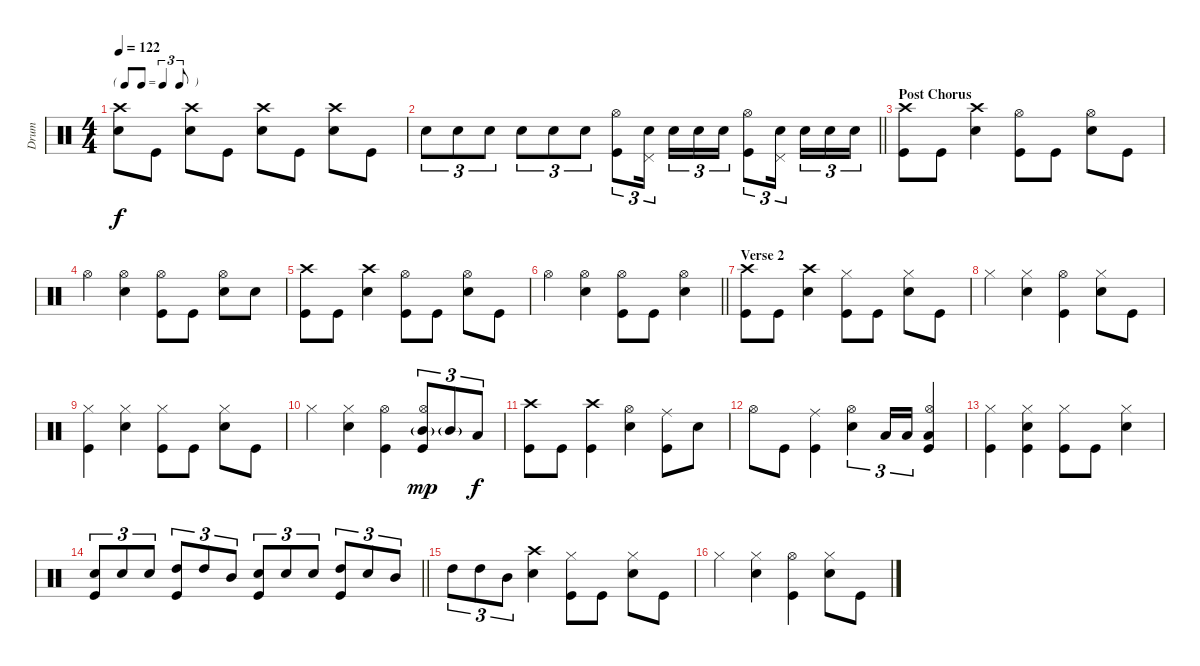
\track ("Drum" "Drum") {instrument percussion}
\staff {score}
\articulation defaults
\ts (4 4)
\tf triplet8th
\tempo 122
\clef neutral
\ks c
("Crash high (hit)" "Electric Snare (hit)").8{dy f} "Kick (hit)".8 ("Crash high (hit)" "Electric Snare (hit)").8 "Kick (hit)".8 ("Crash high (hit)" "Electric Snare (hit)").8 "Kick (hit)".8 ("Crash high (hit)" "Electric Snare (hit)").8 "Kick (hit)".8 |
\barLineRight lightlight "Electric Snare (hit)".8{tu (3 2)} "Electric Snare (hit)".8{tu (3 2)} "Electric Snare (hit)".8{tu (3 2)} "Electric Snare (hit)".8{tu (3 2)} "Electric Snare (hit)".8{tu (3 2)} "Electric Snare (hit)".8{tu (3 2)}
("Hi-Hat (open)" "Kick (hit)").8{tu (3 2)} ("Pedal Hi-Hat (hit)" "Electric Snare (hit)").16{tu (3 2)} "Electric Snare (hit)".16{tu (3 2)} "Electric Snare (hit)".16{tu (3 2)} "Electric Snare (hit)".16{tu (3 2)} ("Hi-Hat (open)" "Kick (hit)").8{tu (3 2)} ("Pedal Hi-Hat (hit)" "Electric Snare (hit)").16{tu (3 2)} "Electric Snare (hit)".16{tu (3 2)} "Electric Snare (hit)".16{tu (3 2)} "Electric Snare (hit)".16{tu (3 2)} |
\section ("" "Post Chorus")
("Crash high (hit)" "Kick (hit)").8 "Kick (hit)".8 ("Crash high (hit)" "Electric Snare (hit)").4 ("Hi-Hat (open)" "Kick (hit)").8 "Kick (hit)".8 ("Hi-Hat (open)" "Electric Snare (hit)").8 "Kick (hit)".8 |
"Hi-Hat (open)".4 ("Hi-Hat (open)" "Electric Snare (hit)").4 ("Hi-Hat (open)" "Kick (hit)").8 "Kick (hit)".8 ("Hi-Hat (open)" "Electric Snare (hit)").8 "Electric Snare (hit)".8 |
("Crash high (hit)" "Kick (hit)").8 "Kick (hit)".8 ("Crash high (hit)" "Electric Snare (hit)").4 ("Hi-Hat (open)" "Kick (hit)").8 "Kick (hit)".8 ("Hi-Hat (open)" "Electric Snare (hit)").8 "Kick (hit)".8 |
\barLineRight lightlight "Hi-Hat (open)".4
("Hi-Hat (open)" "Electric Snare (hit)").4 ("Hi-Hat (open)" "Kick (hit)").8 "Kick (hit)".8 ("Hi-Hat (open)" "Electric Snare (hit)").4 |
\section ("" "Verse 2")
("Crash high (hit)" "Kick (hit)").8 "Kick (hit)".8 ("Crash high (hit)" "Electric Snare (hit)").4 ("Hi-Hat (closed)" "Kick (hit)").8 "Kick (hit)".8 ("Hi-Hat (closed)" "Electric Snare (hit)").8 "Kick (hit)".8 |
"Hi-Hat (closed)".4 ("Hi-Hat (closed)" "Electric Snare (hit)").4 ("Hi-Hat (open)" "Kick (hit)").4 ("Hi-Hat (closed)" "Electric Snare (hit)").8 "Kick (hit)".8 |
("Hi-Hat (closed)" "Kick (hit)").4 ("Hi-Hat (closed)" "Electric Snare (hit)").4 ("Hi-Hat (closed)" "Kick (hit)").8 "Kick (hit)".8 ("Hi-Hat (closed)" "Electric Snare (hit)").8 "Kick (hit)".8 |
"Hi-Hat (closed)".4 ("Hi-Hat (closed)" "Electric Snare (hit)").4 ("Hi-Hat (open)" "Kick (hit)").4 ("Hi-Hat (open)" "Mid Tom (hit)"{g} "Kick (hit)").8{tu (3 2) dy mp} "Mid Tom (hit)"{g}.8{tu (3 2)} "Low Tom (hit)".8{tu (3 2) dy f} |
("Crash high (hit)" "Kick (hit)").8 "Kick (hit)".8 ("Crash high (hit)" "Kick (hit)").4 ("Hi-Hat (open)" "Electric Snare (hit)").4 ("Ride (middle)" "Kick (hit)").8 "Electric Snare (hit)".8 |
"Hi-Hat (open)".8 "Kick (hit)".8 ("Ride (middle)" "Kick (hit)").4 ("Hi-Hat (open)" "Electric Snare (hit)").4{tu (3 2)} "Low Tom (hit)".16{tu (3 2)} "Low Tom (hit)".16{tu (3 2)} ("Hi-Hat (open)" "Low Floor Tom (hit)" "Kick (hit)").4 |
("Hi-Hat (closed)" "Kick (hit)").4 ("Hi-Hat (closed)" "Electric Snare (hit)" "Kick (hit)").4 ("Hi-Hat (closed)" "Kick (hit)").8 "Kick (hit)".8 ("Hi-Hat (closed)" "Electric Snare (hit)").4 |
\barLineRight lightlight
("Electric Snare (hit)" "Kick (hit)").8{tu (3 2)} "Electric Snare (hit)".8{tu (3 2)} "Electric Snare (hit)".8{tu (3 2)} ("High Tom (hit)" "Kick (hit)").8{tu (3 2)} "High Tom (hit)".8{tu (3 2)} "Mid Tom (hit)".8{tu (3 2)} ("Electric Snare (hit)" "Kick (hit)").8{tu (3 2)} "Electric Snare (hit)".8{tu (3 2)} "Electric Snare (hit)".8{tu (3 2)} ("High Tom (hit)" "Kick (hit)").8{tu (3 2)} "Electric Snare (hit)".8{tu (3 2)} "Mid Tom (hit)".8{tu (3 2)} |
"High Tom (hit)".8{tu (3 2)} "High Tom (hit)".8{tu (3 2)} "Mid Tom (hit)".8{tu (3 2)} ("Crash high (hit)" "Electric Snare (hit)").4 ("Hi-Hat (closed)" "Kick (hit)").8 "Kick (hit)".8 ("Hi-Hat (closed)" "Electric Snare (hit)").8 "Kick (hit)".8 |
"Hi-Hat (closed)".4 ("Hi-Hat (closed)" "Electric Snare (hit)").4 ("Hi-Hat (open)" "Kick (hit)").4 ("Hi-Hat (closed)" "Electric Snare (hit)").8 "Kick (hit)".8
